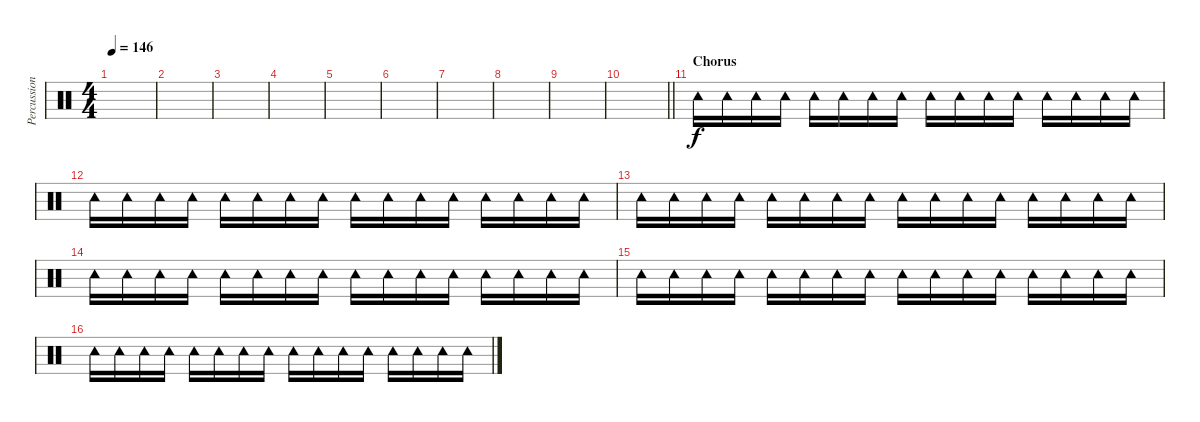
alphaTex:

\track ("Percussion" "Percussion") {instrument percussion}
\staff {score}
\articulation defaults
\ts (4 4)
\tempo 146
\clef neutral
\ks c
|
|
|
|
|
|
|
|
|
\barLineRight lightlight
|
\section ("" "Chorus")
"Tambourine (hit)".16 "Tambourine (hit)".16 "Tambourine (hit)".16 "Tambourine (hit)".16 "Tambourine (hit)".16 "Tambourine (hit)".16 "Tambourine (hit)".16 "Tambourine (hit)".16 "Tambourine (hit)".16 "Tambourine (hit)".16 "Tambourine (hit)".16 "Tambourine (hit)".16 "Tambourine (hit)".16 "Tambourine (hit)".16 "Tambourine (hit)".16 "Tambourine (hit)".16 |
"Tambourine (hit)".16 "Tambourine (hit)".16 "Tambourine (hit)".16 "Tambourine (hit)".16 "Tambourine (hit)".16 "Tambourine (hit)".16 "Tambourine (hit)".16 "Tambourine (hit)".16 "Tambourine (hit)".16 "Tambourine (hit)".16 "Tambourine (hit)".16 "Tambourine (hit)".16 "Tambourine (hit)".16 "Tambourine (hit)".16 "Tambourine (hit)".16 "Tambourine (hit)".16 |
"Tambourine (hit)".16 "Tambourine (hit)".16 "Tambourine (hit)".16 "Tambourine (hit)".16 "Tambourine (hit)".16 "Tambourine (hit)".16 "Tambourine (hit)".16 "Tambourine (hit)".16 "Tambourine (hit)".16 "Tambourine (hit)".16 "Tambourine (hit)".16 "Tambourine (hit)".16 "Tambourine (hit)".16 "Tambourine (hit)".16 "Tambourine (hit)".16 "Tambourine (hit)".16 |
"Tambourine (hit)".16 "Tambourine (hit)".16 "Tambourine (hit)".16 "Tambourine (hit)".16 "Tambourine (hit)".16 "Tambourine (hit)".16 "Tambourine (hit)".16 "Tambourine (hit)".16 "Tambourine (hit)".16 "Tambourine (hit)".16 "Tambourine (hit)".16 "Tambourine (hit)".16 "Tambourine (hit)".16 "Tambourine (hit)".16 "Tambourine (hit)".16 "Tambourine (hit)".16 |
"Tambourine (hit)".16 "Tambourine (hit)".16 "Tambourine (hit)".16 "Tambourine (hit)".16 "Tambourine (hit)".16 "Tambourine (hit)".16 "Tambourine (hit)".16 "Tambourine (hit)".16 "Tambourine (hit)".16 "Tambourine (hit)".16 "Tambourine (hit)".16 "Tambourine (hit)".16 "Tambourine (hit)".16 "Tambourine (hit)".16 "Tambourine (hit)".16 "Tambourine (hit)".16 |
"Tambourine (hit)".16 "Tambourine (hit)".16 "Tambourine (hit)".16 "Tambourine (hit)".16 "Tambourine (hit)".16 "Tambourine (hit)".16 "Tambourine (hit)".16 "Tambourine (hit)".16 "Tambourine (hit)".16 "Tambourine (hit)".16 "Tambourine (hit)".16 "Tambourine (hit)".16 "Tambourine (hit)".16 "Tambourine (hit)".16 "Tambourine (hit)".16 "Tambourine (hit)".16
